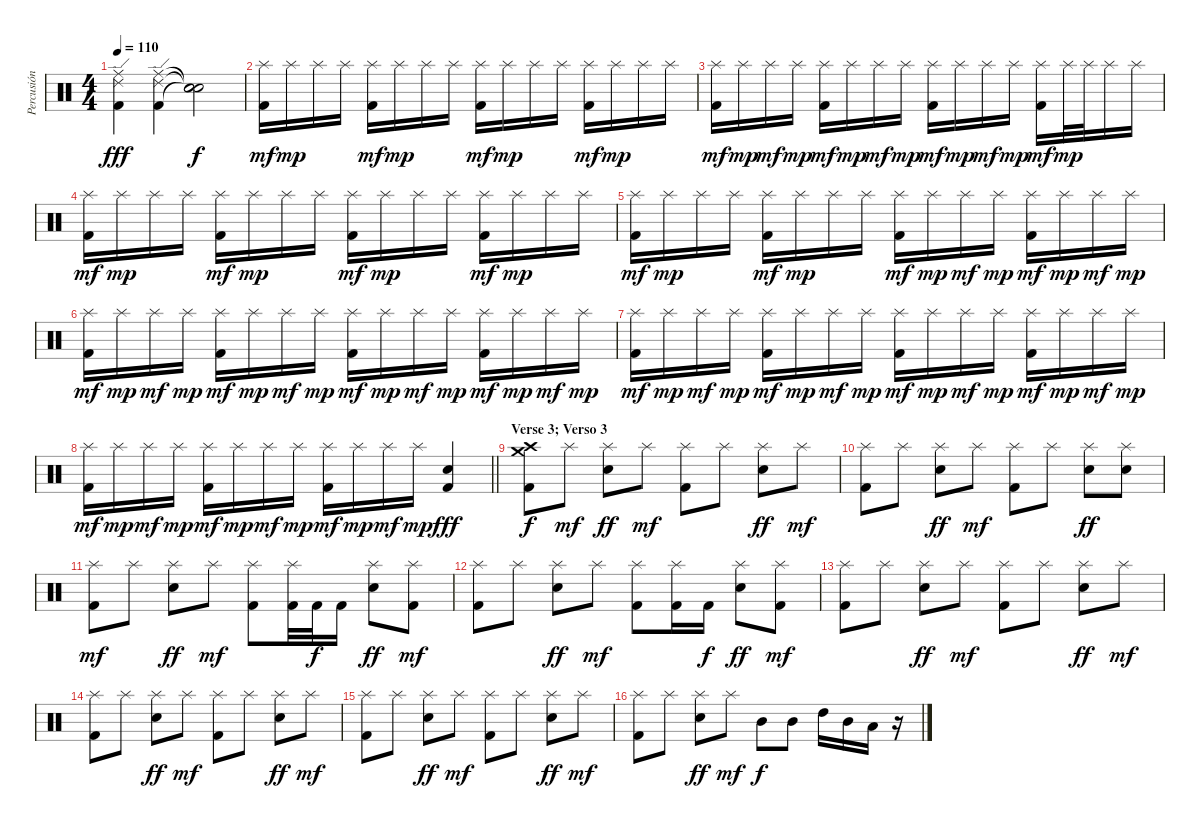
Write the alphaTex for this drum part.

\track ("Percusión" "Percusión") {instrument percussion}
\staff {score}
\articulation defaults
\ts (4 4)
\tempo 110
\clef neutral
\ks c
("Ride (middle)" "Ride (edge) 2" "Kick (hit) 2").4{dy fff} ("Ride (middle)" "Ride (edge) 2" "Kick (hit) 2").4 ("Snare (hit)"{t} "Snare (hit)"{t} "Snare (hit)"{t}).2{dy f} |
("Splash (hit)" "Kick (hit) 2").16{dy mf} "Splash (hit)".16{dy mp} "Splash (hit)".16 "Splash (hit)".16 ("Splash (hit)" "Kick (hit) 2").16{dy mf} "Splash (hit)".16{dy mp} "Splash (hit)".16 "Splash (hit)".16 ("Splash (hit)" "Kick (hit) 2").16{dy mf} "Splash (hit)".16{dy mp} "Splash (hit)".16 "Splash (hit)".16 ("Splash (hit)" "Kick (hit) 2").16{dy mf} "Splash (hit)".16{dy mp} "Splash (hit)".16 "Splash (hit)".16 |
("Splash (hit)" "Kick (hit) 2").16{dy mf} "Splash (hit)".16{dy mp} "Splash (hit)".16{dy mf} "Splash (hit)".16{dy mp} ("Splash (hit)" "Kick (hit) 2").16{dy mf} "Splash (hit)".16{dy mp} "Splash (hit)".16{dy mf} "Splash (hit)".16{dy mp} ("Splash (hit)" "Kick (hit) 2").16{dy mf} "Splash (hit)".16{dy mp} "Splash (hit)".16{dy mf} "Splash (hit)".16{dy mp} ("Splash (hit)" "Kick (hit) 2").16{dy mf} "Splash (hit)".32{dy mp} "Splash (hit)".32 "Splash (hit)".16 "Splash (hit)".16 |
("Splash (hit)" "Kick (hit) 2").16{dy mf} "Splash (hit)".16{dy mp} "Splash (hit)".16 "Splash (hit)".16 ("Splash (hit)" "Kick (hit) 2").16{dy mf} "Splash (hit)".16{dy mp} "Splash (hit)".16 "Splash (hit)".16 ("Splash (hit)" "Kick (hit) 2").16{dy mf} "Splash (hit)".16{dy mp} "Splash (hit)".16 "Splash (hit)".16 ("Splash (hit)" "Kick (hit) 2").16{dy mf} "Splash (hit)".16{dy mp} "Splash (hit)".16 "Splash (hit)".16 |
("Splash (hit)" "Kick (hit) 2").16{dy mf} "Splash (hit)".16{dy mp} "Splash (hit)".16 "Splash (hit)".16 ("Splash (hit)" "Kick (hit) 2").16{dy mf} "Splash (hit)".16{dy mp} "Splash (hit)".16 "Splash (hit)".16 ("Splash (hit)" "Kick (hit) 2").16{dy mf} "Splash (hit)".16{dy mp} "Splash (hit)".16{dy mf} "Splash (hit)".16{dy mp} ("Splash (hit)" "Kick (hit) 2").16{dy mf} "Splash (hit)".16{dy mp} "Splash (hit)".16{dy mf} "Splash (hit)".16{dy mp} |
("Splash (hit)" "Kick (hit) 2").16{dy mf} "Splash (hit)".16{dy mp} "Splash (hit)".16{dy mf} "Splash (hit)".16{dy mp} ("Splash (hit)" "Kick (hit) 2").16{dy mf} "Splash (hit)".16{dy mp} "Splash (hit)".16{dy mf} "Splash (hit)".16{dy mp} ("Splash (hit)" "Kick (hit) 2").16{dy mf} "Splash (hit)".16{dy mp} "Splash (hit)".16{dy mf} "Splash (hit)".16{dy mp} ("Splash (hit)" "Kick (hit) 2").16{dy mf} "Splash (hit)".16{dy mp} "Splash (hit)".16{dy mf} "Splash (hit)".16{dy mp} |
("Splash (hit)" "Kick (hit) 2").16{dy mf} "Splash (hit)".16{dy mp} "Splash (hit)".16{dy mf} "Splash (hit)".16{dy mp} ("Splash (hit)" "Kick (hit) 2").16{dy mf} "Splash (hit)".16{dy mp} "Splash (hit)".16{dy mf} "Splash (hit)".16{dy mp} ("Splash (hit)" "Kick (hit) 2").16{dy mf} "Splash (hit)".16{dy mp} "Splash (hit)".16{dy mf} "Splash (hit)".16{dy mp} ("Splash (hit)" "Kick (hit) 2").16{dy mf} "Splash (hit)".16{dy mp} "Splash (hit)".16{dy mf} "Splash (hit)".16{dy mp} |
\barLineRight lightlight
("Splash (hit)" "Kick (hit) 2").16{dy mf} "Splash (hit)".16{dy mp} "Splash (hit)".16{dy mf} "Splash (hit)".16{dy mp} ("Splash (hit)" "Kick (hit) 2").16{dy mf} "Splash (hit)".16{dy mp} "Splash (hit)".16{dy mf} "Splash (hit)".16{dy mp} ("Splash (hit)" "Kick (hit) 2").16{dy mf} "Splash (hit)".16{dy mp} "Splash (hit)".16{dy mf} "Splash (hit)".16{dy mp} ("Electric Snare (hit)" "Kick (hit) 2").4{dy fff} |
\section ("" "Verse 3; Verso 3")
("Crash medium (hit)" "Crash high (hit)" "Kick (hit) 2").8{dy f} "Splash (hit)".8{dy mf} ("Splash (hit)" "Electric Snare (hit)").8{dy ff} "Splash (hit)".8{dy mf} ("Splash (hit)" "Kick (hit) 2").8 "Splash (hit)".8 ("Splash (hit)" "Electric Snare (hit)").8{dy ff} "Splash (hit)".8{dy mf} |
("Splash (hit)" "Kick (hit) 2").8 "Splash (hit)".8 ("Splash (hit)" "Electric Snare (hit)").8{dy ff} "Splash (hit)".8{dy mf} ("Splash (hit)" "Kick (hit) 2").8 "Splash (hit)".8 ("Splash (hit)" "Electric Snare (hit)").8{dy ff} ("Splash (hit)" "Electric Snare (hit)").8 |
("Splash (hit)" "Kick (hit) 2").8{dy mf} "Splash (hit)".8 ("Splash (hit)" "Electric Snare (hit)").8{dy ff} "Splash (hit)".8{dy mf} ("Splash (hit)" "Kick (hit) 2").8 ("Splash (hit)" "Kick (hit) 2").32 "Kick (hit) 2".32{dy f} "Kick (hit) 2".16 ("Splash (hit)" "Electric Snare (hit)").8{dy ff} ("Splash (hit)" "Kick (hit) 2").8{dy mf} |
("Splash (hit)" "Kick (hit) 2").8 "Splash (hit)".8 ("Splash (hit)" "Electric Snare (hit)").8{dy ff} "Splash (hit)".8{dy mf} ("Splash (hit)" "Kick (hit) 2").8 ("Splash (hit)" "Kick (hit) 2").16 "Kick (hit) 2".16{dy f} ("Splash (hit)" "Electric Snare (hit)").8{dy ff} ("Splash (hit)" "Kick (hit) 2").8{dy mf} |
("Splash (hit)" "Kick (hit) 2").8 "Splash (hit)".8 ("Splash (hit)" "Electric Snare (hit)").8{dy ff} "Splash (hit)".8{dy mf} ("Splash (hit)" "Kick (hit) 2").8 "Splash (hit)".8 ("Splash (hit)" "Electric Snare (hit)").8{dy ff} "Splash (hit)".8{dy mf} |
("Splash (hit)" "Kick (hit) 2").8 "Splash (hit)".8 ("Splash (hit)" "Electric Snare (hit)").8{dy ff} "Splash (hit)".8{dy mf} ("Splash (hit)" "Kick (hit) 2").8 "Splash (hit)".8 ("Splash (hit)" "Electric Snare (hit)").8{dy ff} "Splash (hit)".8{dy mf} |
("Splash (hit)" "Kick (hit) 2").8 "Splash (hit)".8 ("Splash (hit)" "Electric Snare (hit)").8{dy ff} "Splash (hit)".8{dy mf} ("Splash (hit)" "Kick (hit) 2").8 "Splash (hit)".8 ("Splash (hit)" "Electric Snare (hit)").8{dy ff} "Splash (hit)".8{dy mf} |
("Splash (hit)" "Kick (hit) 2").8 "Splash (hit)".8 ("Splash (hit)" "Electric Snare (hit)").8{dy ff} "Splash (hit)".8{dy mf} "Mid Tom (hit)".8{dy f} "Mid Tom (hit)".8 "High Tom (hit)".16 "Mid Tom (hit)".16 "Low Tom (hit)".16 r.16
